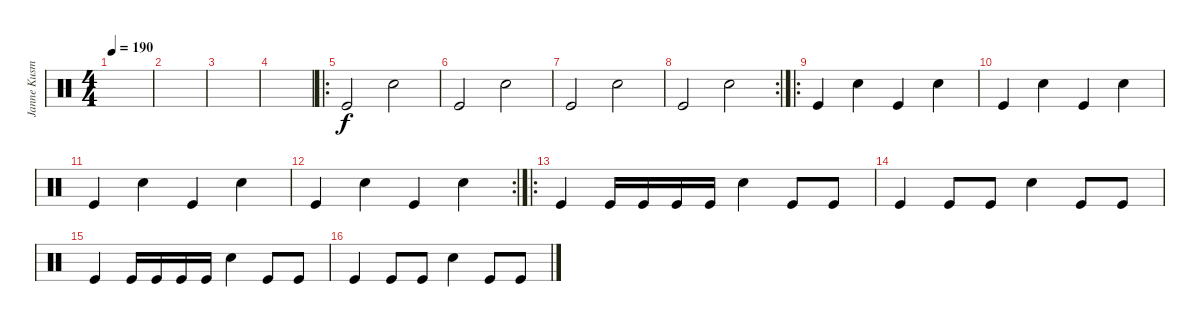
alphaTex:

\track ("Janne Kusmin" "Janne Kusm") {instrument percussion}
\staff {score}
\articulation defaults
\ts (4 4)
\tempo 190
\clef neutral
\ks c
|
|
|
|
\ro "Kick (hit)".2 "Electric Snare (hit)".2
|
"Kick (hit)".2 "Electric Snare (hit)".2 |
"Kick (hit)".2 "Electric Snare (hit)".2 |
\rc 2 "Kick (hit)".2 "Electric Snare (hit)".2
|
\ro "Kick (hit)".4 "Electric Snare (hit)".4 "Kick (hit)".4 "Electric Snare (hit)".4
|
"Kick (hit)".4 "Electric Snare (hit)".4 "Kick (hit)".4 "Electric Snare (hit)".4 |
"Kick (hit)".4 "Electric Snare (hit)".4 "Kick (hit)".4 "Electric Snare (hit)".4 |
\rc 2 "Kick (hit)".4 "Electric Snare (hit)".4 "Kick (hit)".4 "Electric Snare (hit)".4
|
\ro "Kick (hit)".4 "Kick (hit)".16 "Kick (hit)".16 "Kick (hit)".16 "Kick (hit)".16 "Electric Snare (hit)".4 "Kick (hit)".8 "Kick (hit)".8
|
"Kick (hit)".4 "Kick (hit)".8 "Kick (hit)".8 "Electric Snare (hit)".4 "Kick (hit)".8 "Kick (hit)".8 |
"Kick (hit)".4 "Kick (hit)".16 "Kick (hit)".16 "Kick (hit)".16 "Kick (hit)".16 "Electric Snare (hit)".4 "Kick (hit)".8 "Kick (hit)".8 |
"Kick (hit)".4 "Kick (hit)".8 "Kick (hit)".8 "Electric Snare (hit)".4 "Kick (hit)".8 "Kick (hit)".8
